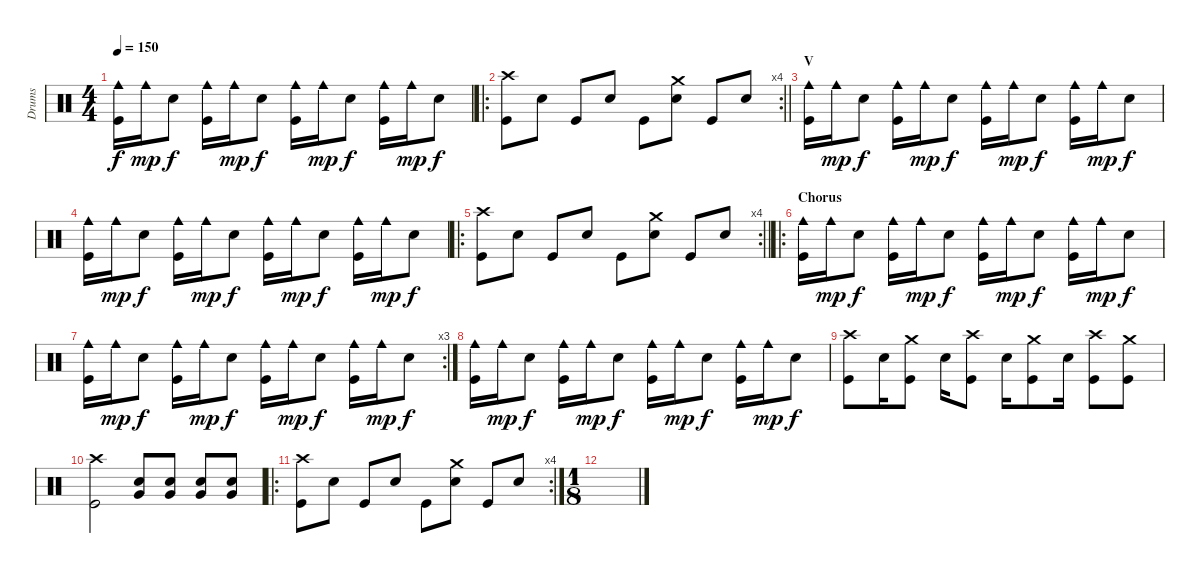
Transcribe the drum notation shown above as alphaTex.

\track ("Drums" "Drums") {instrument percussion}
\staff {score}
\articulation defaults
\ts (4 4)
\tempo 150
\clef neutral
\ks c
("Cowbell medium (hit)" "Kick (hit)").16{dy f} "Cowbell medium (hit)".16{dy mp} "Snare (hit) 2".8{dy f} ("Cowbell medium (hit)" "Kick (hit)").16 "Cowbell medium (hit)".16{dy mp} "Snare (hit) 2".8{dy f} ("Cowbell medium (hit)" "Kick (hit)").16 "Cowbell medium (hit)".16{dy mp} "Snare (hit) 2".8{dy f} ("Cowbell medium (hit)" "Kick (hit)").16 "Cowbell medium (hit)".16{dy mp} "Snare (hit) 2".8{dy f} |
\ro
\rc 4
\barLineRight lightlight
("Crash high (hit)" "Kick (hit)").8 "Snare (hit) 2".8 "Kick (hit)".8 "Snare (hit) 2".8 "Kick (hit)".8 ("Crash medium (hit)" "Snare (hit) 2").8 "Kick (hit)".8 "Snare (hit) 2".8 |
\section ("" "V")
("Cowbell medium (hit)" "Kick (hit)").16 "Cowbell medium (hit)".16{dy mp} "Snare (hit) 2".8{dy f} ("Cowbell medium (hit)" "Kick (hit)").16 "Cowbell medium (hit)".16{dy mp} "Snare (hit) 2".8{dy f} ("Cowbell medium (hit)" "Kick (hit)").16 "Cowbell medium (hit)".16{dy mp} "Snare (hit) 2".8{dy f} ("Cowbell medium (hit)" "Kick (hit)").16 "Cowbell medium (hit)".16{dy mp} "Snare (hit) 2".8{dy f} |
("Cowbell medium (hit)" "Kick (hit)").16 "Cowbell medium (hit)".16{dy mp} "Snare (hit) 2".8{dy f} ("Cowbell medium (hit)" "Kick (hit)").16 "Cowbell medium (hit)".16{dy mp} "Snare (hit) 2".8{dy f} ("Cowbell medium (hit)" "Kick (hit)").16 "Cowbell medium (hit)".16{dy mp} "Snare (hit) 2".8{dy f} ("Cowbell medium (hit)" "Kick (hit)").16 "Cowbell medium (hit)".16{dy mp} "Snare (hit) 2".8{dy f} |
\ro
\rc 4
\barLineRight lightlight
("Crash high (hit)" "Kick (hit)").8 "Snare (hit) 2".8 "Kick (hit)".8 "Snare (hit) 2".8 "Kick (hit)".8 ("Crash medium (hit)" "Snare (hit) 2").8 "Kick (hit)".8 "Snare (hit) 2".8 |
\ro
\section ("" "Chorus")
("Cowbell medium (hit)" "Kick (hit)").16 "Cowbell medium (hit)".16{dy mp} "Snare (hit) 2".8{dy f} ("Cowbell medium (hit)" "Kick (hit)").16 "Cowbell medium (hit)".16{dy mp} "Snare (hit) 2".8{dy f} ("Cowbell medium (hit)" "Kick (hit)").16 "Cowbell medium (hit)".16{dy mp} "Snare (hit) 2".8{dy f} ("Cowbell medium (hit)" "Kick (hit)").16 "Cowbell medium (hit)".16{dy mp} "Snare (hit) 2".8{dy f} |
\rc 3
("Cowbell medium (hit)" "Kick (hit)").16 "Cowbell medium (hit)".16{dy mp} "Snare (hit) 2".8{dy f} ("Cowbell medium (hit)" "Kick (hit)").16 "Cowbell medium (hit)".16{dy mp} "Snare (hit) 2".8{dy f} ("Cowbell medium (hit)" "Kick (hit)").16 "Cowbell medium (hit)".16{dy mp} "Snare (hit) 2".8{dy f} ("Cowbell medium (hit)" "Kick (hit)").16 "Cowbell medium (hit)".16{dy mp} "Snare (hit) 2".8{dy f} |
("Cowbell medium (hit)" "Kick (hit)").16 "Cowbell medium (hit)".16{dy mp} "Snare (hit) 2".8{dy f} ("Cowbell medium (hit)" "Kick (hit)").16 "Cowbell medium (hit)".16{dy mp} "Snare (hit) 2".8{dy f} ("Cowbell medium (hit)" "Kick (hit)").16 "Cowbell medium (hit)".16{dy mp} "Snare (hit) 2".8{dy f} ("Cowbell medium (hit)" "Kick (hit)").16 "Cowbell medium (hit)".16{dy mp} "Snare (hit) 2".8{dy f} |
("Crash high (hit)" "Kick (hit)").8 "Snare (hit) 2".16 ("Crash medium (hit)" "Kick (hit)").8 "Snare (hit) 2".16 ("Crash high (hit)" "Kick (hit)").8 "Snare (hit) 2".16 ("Crash medium (hit)" "Kick (hit)").8 "Snare (hit) 2".16 ("Crash high (hit)" "Kick (hit)").8 ("Crash medium (hit)" "Kick (hit)").8 |
("Crash high (hit)" "Kick (hit)").2 ("Snare (hit) 2" "Very Low Tom (hit)").8 ("Snare (hit) 2" "Very Low Tom (hit)").8 ("Snare (hit) 2" "Very Low Tom (hit)").8 ("Snare (hit) 2" "Very Low Tom (hit)").8 |
\ro
\rc 4
("Crash high (hit)" "Kick (hit)").8 "Snare (hit) 2".8 "Kick (hit)".8 "Snare (hit) 2".8 "Kick (hit)".8 ("Crash medium (hit)" "Snare (hit) 2").8 "Kick (hit)".8 "Snare (hit) 2".8 |
\ts (1 8)
